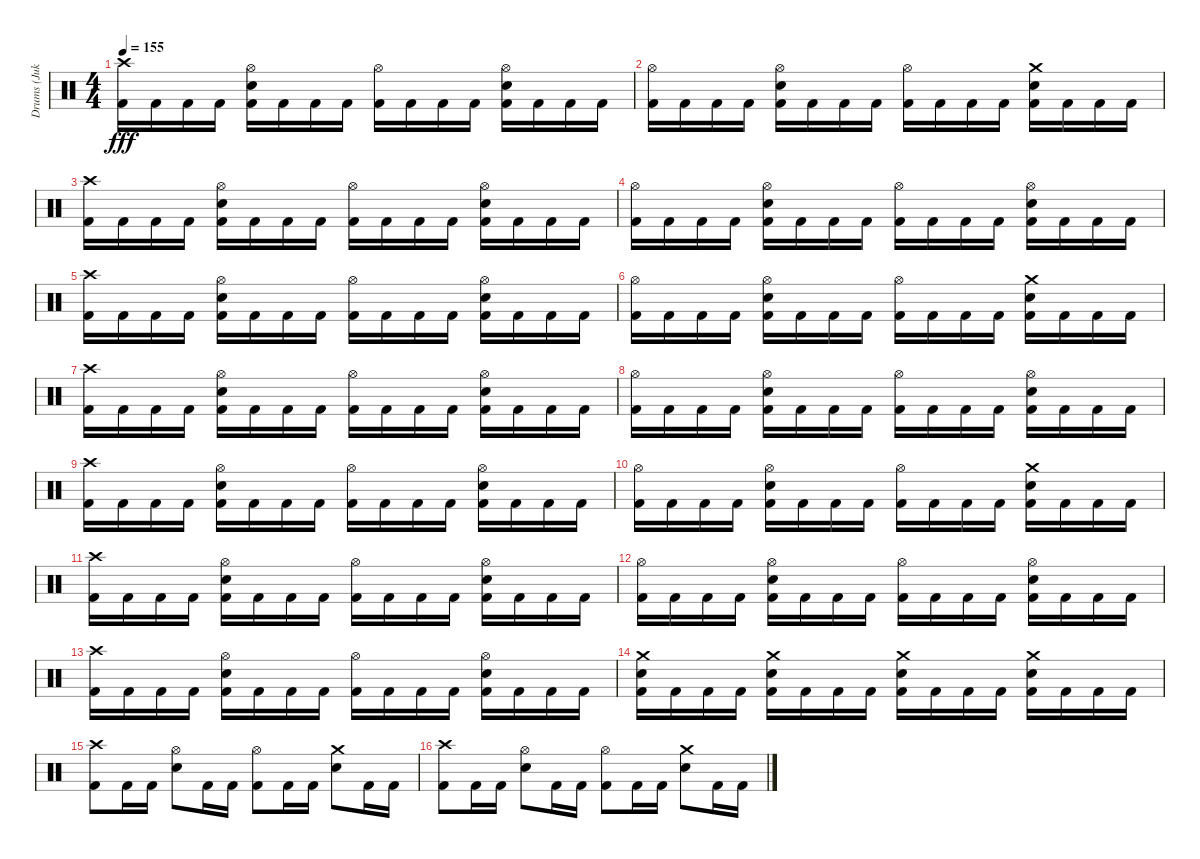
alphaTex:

\track ("Drums (Jukka)" "Drums (Juk") {instrument percussion}
\staff {score}
\articulation defaults
\ts (4 4)
\tempo 155
\clef neutral
\ks c
("Kick (hit) 2" "Crash high (hit)").16{dy fff} "Kick (hit) 2".16 "Kick (hit) 2".16 "Kick (hit) 2".16 ("Snare (hit) 2" "Kick (hit) 2" "Hi-Hat (open)").16 "Kick (hit) 2".16 "Kick (hit) 2".16 "Kick (hit) 2".16 ("Kick (hit) 2" "Hi-Hat (open)").16 "Kick (hit) 2".16 "Kick (hit) 2".16 "Kick (hit) 2".16 ("Snare (hit) 2" "Kick (hit) 2" "Hi-Hat (open)").16 "Kick (hit) 2".16 "Kick (hit) 2".16 "Kick (hit) 2".16 |
("Kick (hit) 2" "Hi-Hat (open)").16 "Kick (hit) 2".16 "Kick (hit) 2".16 "Kick (hit) 2".16 ("Snare (hit) 2" "Kick (hit) 2" "Hi-Hat (open)").16 "Kick (hit) 2".16 "Kick (hit) 2".16 "Kick (hit) 2".16 ("Kick (hit) 2" "Hi-Hat (open)").16 "Kick (hit) 2".16 "Kick (hit) 2".16 "Kick (hit) 2".16 ("Snare (hit) 2" "Kick (hit) 2" "Crash medium (hit)").16 "Kick (hit) 2".16 "Kick (hit) 2".16 "Kick (hit) 2".16 |
("Kick (hit) 2" "Crash high (hit)").16 "Kick (hit) 2".16 "Kick (hit) 2".16 "Kick (hit) 2".16 ("Snare (hit) 2" "Kick (hit) 2" "Hi-Hat (open)").16 "Kick (hit) 2".16 "Kick (hit) 2".16 "Kick (hit) 2".16 ("Kick (hit) 2" "Hi-Hat (open)").16 "Kick (hit) 2".16 "Kick (hit) 2".16 "Kick (hit) 2".16 ("Snare (hit) 2" "Kick (hit) 2" "Hi-Hat (open)").16 "Kick (hit) 2".16 "Kick (hit) 2".16 "Kick (hit) 2".16 |
("Kick (hit) 2" "Hi-Hat (open)").16 "Kick (hit) 2".16 "Kick (hit) 2".16 "Kick (hit) 2".16 ("Snare (hit) 2" "Kick (hit) 2" "Hi-Hat (open)").16 "Kick (hit) 2".16 "Kick (hit) 2".16 "Kick (hit) 2".16 ("Kick (hit) 2" "Hi-Hat (open)").16 "Kick (hit) 2".16 "Kick (hit) 2".16 "Kick (hit) 2".16 ("Snare (hit) 2" "Kick (hit) 2" "Hi-Hat (open)").16 "Kick (hit) 2".16 "Kick (hit) 2".16 "Kick (hit) 2".16 |
("Kick (hit) 2" "Crash high (hit)").16 "Kick (hit) 2".16 "Kick (hit) 2".16 "Kick (hit) 2".16 ("Snare (hit) 2" "Kick (hit) 2" "Hi-Hat (open)").16 "Kick (hit) 2".16 "Kick (hit) 2".16 "Kick (hit) 2".16 ("Kick (hit) 2" "Hi-Hat (open)").16 "Kick (hit) 2".16 "Kick (hit) 2".16 "Kick (hit) 2".16 ("Snare (hit) 2" "Kick (hit) 2" "Hi-Hat (open)").16 "Kick (hit) 2".16 "Kick (hit) 2".16 "Kick (hit) 2".16 |
("Kick (hit) 2" "Hi-Hat (open)").16 "Kick (hit) 2".16 "Kick (hit) 2".16 "Kick (hit) 2".16 ("Snare (hit) 2" "Kick (hit) 2" "Hi-Hat (open)").16 "Kick (hit) 2".16 "Kick (hit) 2".16 "Kick (hit) 2".16 ("Kick (hit) 2" "Hi-Hat (open)").16 "Kick (hit) 2".16 "Kick (hit) 2".16 "Kick (hit) 2".16 ("Snare (hit) 2" "Kick (hit) 2" "Crash medium (hit)").16 "Kick (hit) 2".16 "Kick (hit) 2".16 "Kick (hit) 2".16 |
("Kick (hit) 2" "Crash high (hit)").16 "Kick (hit) 2".16 "Kick (hit) 2".16 "Kick (hit) 2".16 ("Snare (hit) 2" "Kick (hit) 2" "Hi-Hat (open)").16 "Kick (hit) 2".16 "Kick (hit) 2".16 "Kick (hit) 2".16 ("Kick (hit) 2" "Hi-Hat (open)").16 "Kick (hit) 2".16 "Kick (hit) 2".16 "Kick (hit) 2".16 ("Snare (hit) 2" "Kick (hit) 2" "Hi-Hat (open)").16 "Kick (hit) 2".16 "Kick (hit) 2".16 "Kick (hit) 2".16 |
("Kick (hit) 2" "Hi-Hat (open)").16 "Kick (hit) 2".16 "Kick (hit) 2".16 "Kick (hit) 2".16 ("Snare (hit) 2" "Kick (hit) 2" "Hi-Hat (open)").16 "Kick (hit) 2".16 "Kick (hit) 2".16 "Kick (hit) 2".16 ("Kick (hit) 2" "Hi-Hat (open)").16 "Kick (hit) 2".16 "Kick (hit) 2".16 "Kick (hit) 2".16 ("Snare (hit) 2" "Kick (hit) 2" "Hi-Hat (open)").16 "Kick (hit) 2".16 "Kick (hit) 2".16 "Kick (hit) 2".16 |
("Kick (hit) 2" "Crash high (hit)").16 "Kick (hit) 2".16 "Kick (hit) 2".16 "Kick (hit) 2".16 ("Snare (hit) 2" "Kick (hit) 2" "Hi-Hat (open)").16 "Kick (hit) 2".16 "Kick (hit) 2".16 "Kick (hit) 2".16 ("Kick (hit) 2" "Hi-Hat (open)").16 "Kick (hit) 2".16 "Kick (hit) 2".16 "Kick (hit) 2".16 ("Snare (hit) 2" "Kick (hit) 2" "Hi-Hat (open)").16 "Kick (hit) 2".16 "Kick (hit) 2".16 "Kick (hit) 2".16 |
("Kick (hit) 2" "Hi-Hat (open)").16 "Kick (hit) 2".16 "Kick (hit) 2".16 "Kick (hit) 2".16 ("Snare (hit) 2" "Kick (hit) 2" "Hi-Hat (open)").16 "Kick (hit) 2".16 "Kick (hit) 2".16 "Kick (hit) 2".16 ("Kick (hit) 2" "Hi-Hat (open)").16 "Kick (hit) 2".16 "Kick (hit) 2".16 "Kick (hit) 2".16 ("Snare (hit) 2" "Kick (hit) 2" "Crash medium (hit)").16 "Kick (hit) 2".16 "Kick (hit) 2".16 "Kick (hit) 2".16 |
("Kick (hit) 2" "Crash high (hit)").16 "Kick (hit) 2".16 "Kick (hit) 2".16 "Kick (hit) 2".16 ("Snare (hit) 2" "Kick (hit) 2" "Hi-Hat (open)").16 "Kick (hit) 2".16 "Kick (hit) 2".16 "Kick (hit) 2".16 ("Kick (hit) 2" "Hi-Hat (open)").16 "Kick (hit) 2".16 "Kick (hit) 2".16 "Kick (hit) 2".16 ("Snare (hit) 2" "Kick (hit) 2" "Hi-Hat (open)").16 "Kick (hit) 2".16 "Kick (hit) 2".16 "Kick (hit) 2".16 |
("Kick (hit) 2" "Hi-Hat (open)").16 "Kick (hit) 2".16 "Kick (hit) 2".16 "Kick (hit) 2".16 ("Snare (hit) 2" "Kick (hit) 2" "Hi-Hat (open)").16 "Kick (hit) 2".16 "Kick (hit) 2".16 "Kick (hit) 2".16 ("Kick (hit) 2" "Hi-Hat (open)").16 "Kick (hit) 2".16 "Kick (hit) 2".16 "Kick (hit) 2".16 ("Snare (hit) 2" "Kick (hit) 2" "Hi-Hat (open)").16 "Kick (hit) 2".16 "Kick (hit) 2".16 "Kick (hit) 2".16 |
("Kick (hit) 2" "Crash high (hit)").16 "Kick (hit) 2".16 "Kick (hit) 2".16 "Kick (hit) 2".16 ("Snare (hit) 2" "Kick (hit) 2" "Hi-Hat (open)").16 "Kick (hit) 2".16 "Kick (hit) 2".16 "Kick (hit) 2".16 ("Kick (hit) 2" "Hi-Hat (open)").16 "Kick (hit) 2".16 "Kick (hit) 2".16 "Kick (hit) 2".16 ("Snare (hit) 2" "Kick (hit) 2" "Hi-Hat (open)").16 "Kick (hit) 2".16 "Kick (hit) 2".16 "Kick (hit) 2".16 |
("Kick (hit) 2" "Snare (hit) 2" "Crash medium (hit)").16 "Kick (hit) 2".16 "Kick (hit) 2".16 "Kick (hit) 2".16 ("Snare (hit) 2" "Kick (hit) 2" "Crash medium (hit)").16 "Kick (hit) 2".16 "Kick (hit) 2".16 "Kick (hit) 2".16 ("Kick (hit) 2" "Snare (hit) 2" "Crash medium (hit)").16 "Kick (hit) 2".16 "Kick (hit) 2".16 "Kick (hit) 2".16 ("Snare (hit) 2" "Kick (hit) 2" "Crash medium (hit)").16 "Kick (hit) 2".16 "Kick (hit) 2".16 "Kick (hit) 2".16 |
("Kick (hit) 2" "Crash high (hit)").8 "Kick (hit) 2".16 "Kick (hit) 2".16 ("Snare (hit) 2" "Hi-Hat (open)").8 "Kick (hit) 2".16 "Kick (hit) 2".16 ("Kick (hit) 2" "Hi-Hat (open)").8 "Kick (hit) 2".16 "Kick (hit) 2".16 ("Snare (hit) 2" "Crash medium (hit)").8 "Kick (hit) 2".16 "Kick (hit) 2".16 |
("Kick (hit) 2" "Crash high (hit)").8 "Kick (hit) 2".16 "Kick (hit) 2".16 ("Snare (hit) 2" "Hi-Hat (open)").8 "Kick (hit) 2".16 "Kick (hit) 2".16 ("Kick (hit) 2" "Hi-Hat (open)").8 "Kick (hit) 2".16 "Kick (hit) 2".16 ("Snare (hit) 2" "Crash medium (hit)").8 "Kick (hit) 2".16 "Kick (hit) 2".16
